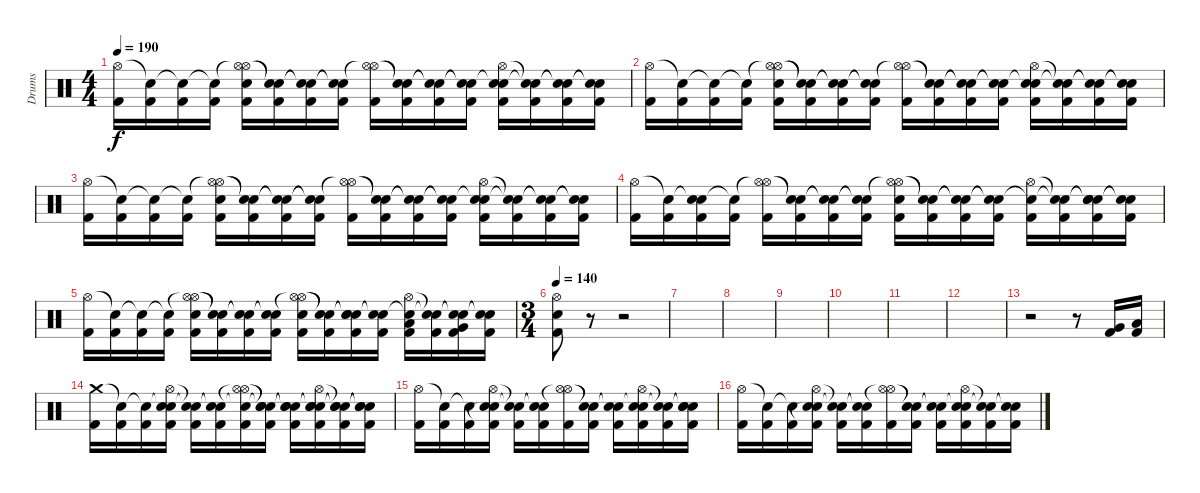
\track ("Drums" "Drums") {instrument percussion}
\staff {score}
\articulation defaults
\ts (4 4)
\tempo 190
\clef neutral
\ks c
("Hi-Hat (open)" "Kick (hit) 2").16{dy f} ("Snare (hit)"{t} "Kick (hit) 2").16 ("Snare (hit)"{t} "Kick (hit) 2").16 ("Snare (hit)"{t} "Kick (hit) 2").16 ("Hi-Hat (open)"{t} "Hi-Hat (open)" "Electric Snare (hit)" "Kick (hit) 2").16 ("Snare (hit)"{t} "Snare (hit)"{t} "Kick (hit) 2").16 ("Snare (hit)"{t} "Snare (hit)"{t} "Kick (hit) 2").16 ("Snare (hit)"{t} "Snare (hit)"{t} "Kick (hit) 2").16 ("Hi-Hat (open)" "Hi-Hat (open)"{t} "Kick (hit) 2").16 ("Snare (hit)"{t} "Snare (hit)"{t} "Kick (hit) 2").16 ("Snare (hit)"{t} "Snare (hit)"{t} "Kick (hit) 2").16 ("Snare (hit)"{t} "Snare (hit)"{t} "Kick (hit) 2").16 ("Snare (hit)"{t} "Hi-Hat (open)" "Electric Snare (hit)" "Kick (hit) 2").16 ("Snare (hit)"{t} "Snare (hit)"{t} "Kick (hit) 2").16 ("Snare (hit)"{t} "Snare (hit)"{t} "Kick (hit) 2").16 ("Snare (hit)"{t} "Snare (hit)"{t} "Kick (hit) 2").16 |
("Hi-Hat (open)" "Kick (hit) 2").16 ("Snare (hit)"{t} "Kick (hit) 2").16 ("Snare (hit)"{t} "Kick (hit) 2").16 ("Snare (hit)"{t} "Kick (hit) 2").16 ("Hi-Hat (open)"{t} "Hi-Hat (open)" "Electric Snare (hit)" "Kick (hit) 2").16 ("Snare (hit)"{t} "Snare (hit)"{t} "Kick (hit) 2").16 ("Snare (hit)"{t} "Snare (hit)"{t} "Kick (hit) 2").16 ("Snare (hit)"{t} "Snare (hit)"{t} "Kick (hit) 2").16 ("Hi-Hat (open)" "Hi-Hat (open)"{t} "Kick (hit) 2").16 ("Snare (hit)"{t} "Snare (hit)"{t} "Kick (hit) 2").16 ("Snare (hit)"{t} "Snare (hit)"{t} "Kick (hit) 2").16 ("Snare (hit)"{t} "Snare (hit)"{t} "Kick (hit) 2").16 ("Snare (hit)"{t} "Hi-Hat (open)" "Electric Snare (hit)" "Kick (hit) 2").16 ("Snare (hit)"{t} "Snare (hit)"{t} "Kick (hit) 2").16 ("Snare (hit)"{t} "Snare (hit)"{t} "Kick (hit) 2").16 ("Snare (hit)"{t} "Snare (hit)"{t} "Kick (hit) 2").16 |
("Hi-Hat (open)" "Kick (hit) 2").16 ("Snare (hit)"{t} "Kick (hit) 2").16 ("Snare (hit)"{t} "Kick (hit) 2").16 ("Snare (hit)"{t} "Kick (hit) 2").16 ("Hi-Hat (open)"{t} "Hi-Hat (open)" "Electric Snare (hit)" "Kick (hit) 2").16 ("Snare (hit)"{t} "Snare (hit)"{t} "Kick (hit) 2").16 ("Snare (hit)"{t} "Snare (hit)"{t} "Kick (hit) 2").16 ("Snare (hit)"{t} "Snare (hit)"{t} "Kick (hit) 2").16 ("Hi-Hat (open)" "Hi-Hat (open)"{t} "Kick (hit) 2").16 ("Snare (hit)"{t} "Snare (hit)"{t} "Kick (hit) 2").16 ("Snare (hit)"{t} "Snare (hit)"{t} "Kick (hit) 2").16 ("Snare (hit)"{t} "Snare (hit)"{t} "Kick (hit) 2").16 ("Snare (hit)"{t} "Hi-Hat (open)" "Electric Snare (hit)" "Kick (hit) 2").16 ("Snare (hit)"{t} "Snare (hit)"{t} "Kick (hit) 2").16 ("Snare (hit)"{t} "Snare (hit)"{t} "Kick (hit) 2").16 ("Snare (hit)"{t} "Snare (hit)"{t} "Kick (hit) 2").16 |
("Hi-Hat (open)" "Kick (hit) 2").16 ("Snare (hit)"{t} "Kick (hit) 2").16 ("Snare (hit)"{t} "Electric Snare (hit)" "Kick (hit) 2").16 ("Snare (hit)"{t} "Kick (hit) 2").16 ("Hi-Hat (open)"{t} "Hi-Hat (open)" "Kick (hit) 2").16 ("Snare (hit)"{t} "Snare (hit)"{t} "Kick (hit) 2").16 ("Snare (hit)"{t} "Snare (hit)"{t} "Kick (hit) 2").16 ("Snare (hit)"{t} "Snare (hit)"{t} "Kick (hit) 2").16 ("Hi-Hat (open)" "Hi-Hat (open)"{t} "Electric Snare (hit)" "Kick (hit) 2").16 ("Snare (hit)"{t} "Snare (hit)"{t} "Kick (hit) 2").16 ("Snare (hit)"{t} "Snare (hit)"{t} "Kick (hit) 2").16 ("Snare (hit)"{t} "Snare (hit)"{t} "Kick (hit) 2").16 ("Snare (hit)"{t} "Hi-Hat (open)" "Kick (hit) 2").16 ("Snare (hit)"{t} "Snare (hit)"{t} "Kick (hit) 2").16 ("Snare (hit)"{t} "Snare (hit)"{t} "Electric Snare (hit)" "Kick (hit) 2").16 ("Snare (hit)"{t} "Snare (hit)"{t} "Kick (hit) 2").16 |
("Hi-Hat (open)" "Kick (hit) 2").16 ("Snare (hit)"{t} "Kick (hit) 2").16 ("Snare (hit)"{t} "Kick (hit) 2").16 ("Snare (hit)"{t} "Kick (hit) 2").16 ("Hi-Hat (open)"{t} "Hi-Hat (open)" "Electric Snare (hit)" "Kick (hit) 2").16 ("Snare (hit)"{t} "Snare (hit)"{t} "Kick (hit) 2").16 ("Snare (hit)"{t} "Snare (hit)"{t} "Kick (hit) 2").16 ("Snare (hit)"{t} "Snare (hit)"{t} "Kick (hit) 2").16 ("Hi-Hat (open)" "Hi-Hat (open)"{t} "Electric Snare (hit)" "Kick (hit) 2").16 ("Snare (hit)"{t} "Snare (hit)"{t} "Kick (hit) 2").16 ("Snare (hit)"{t} "Snare (hit)"{t} "Electric Snare (hit)" "Kick (hit) 2").16 ("Snare (hit)"{t} "Snare (hit)"{t} "Kick (hit) 2").16 ("Snare (hit)"{t} "Hi-Hat (open)" "Low Tom (hit)" "Kick (hit) 2").16 ("Snare (hit)"{t} "Snare (hit)"{t} "Kick (hit) 2").16 ("Snare (hit)"{t} "Snare (hit)"{t} "Very Low Tom (hit)" "Kick (hit) 2").16 ("Snare (hit)"{t} "Snare (hit)"{t} "Kick (hit) 2").16 |
\ts (3 4)
\tempo 140
("Hi-Hat (open)" "Electric Snare (hit)" "Kick (hit) 2").8 r.8 r.2 |
|
|
|
|
|
|
r.2 r.8 ("Very Low Tom (hit)" "Kick (hit) 2").16 ("Low Floor Tom (hit)" "Kick (hit) 2").16 |
("Crash medium (hit)" "Kick (hit) 2").16 ("Snare (hit)"{t} "Kick (hit) 2").16 ("Snare (hit)"{t} "Kick (hit) 2").16 ("Snare (hit)"{t} "Hi-Hat (open)" "Electric Snare (hit)" "Kick (hit) 2").16 ("Snare (hit)"{t} "Snare (hit)"{t} "Kick (hit) 2").16 ("Snare (hit)"{t} "Snare (hit)"{t} "Kick (hit) 2").16 ("Snare (hit)"{t} "Hi-Hat (open)"{t} "Hi-Hat (open)" "Kick (hit) 2").16 ("Snare (hit)"{t} "Snare (hit)"{t} "Snare (hit)"{t} "Kick (hit) 2").16 ("Snare (hit)"{t} "Snare (hit)"{t} "Snare (hit)"{t} "Kick (hit) 2").16 ("Snare (hit)"{t} "Hi-Hat (open)" "Snare (hit)"{t} "Electric Snare (hit)" "Kick (hit) 2").16 ("Snare (hit)"{t} "Snare (hit)"{t} "Snare (hit)"{t} "Kick (hit) 2").16 ("Snare (hit)"{t} "Snare (hit)"{t} "Snare (hit)"{t} "Kick (hit) 2").16 |
("Hi-Hat (open)" "Kick (hit) 2").16 ("Snare (hit)"{t} "Kick (hit) 2").16 ("Snare (hit)"{t} "Kick (hit) 2").16 ("Hi-Hat (open)" "Snare (hit)"{t} "Electric Snare (hit)" "Kick (hit) 2").16 ("Snare (hit)"{t} "Snare (hit)"{t} "Kick (hit) 2").16 ("Snare (hit)"{t} "Snare (hit)"{t} "Kick (hit) 2").16 ("Hi-Hat (open)"{t} "Hi-Hat (open)" "Kick (hit) 2").16 ("Snare (hit)"{t} "Snare (hit)"{t} "Kick (hit) 2").16 ("Snare (hit)"{t} "Snare (hit)"{t} "Kick (hit) 2").16 ("Hi-Hat (open)" "Snare (hit)"{t} "Electric Snare (hit)" "Kick (hit) 2").16 ("Snare (hit)"{t} "Snare (hit)"{t} "Kick (hit) 2").16 ("Snare (hit)"{t} "Snare (hit)"{t} "Electric Snare (hit)" "Kick (hit) 2").16 |
("Hi-Hat (open)" "Kick (hit) 2").16 ("Snare (hit)"{t} "Kick (hit) 2").16 ("Snare (hit)"{t} "Kick (hit) 2").16 ("Hi-Hat (open)" "Snare (hit)"{t} "Electric Snare (hit)" "Kick (hit) 2").16 ("Snare (hit)"{t} "Snare (hit)"{t} "Kick (hit) 2").16 ("Snare (hit)"{t} "Snare (hit)"{t} "Kick (hit) 2").16 ("Hi-Hat (open)"{t} "Hi-Hat (open)" "Kick (hit) 2").16 ("Snare (hit)"{t} "Snare (hit)"{t} "Kick (hit) 2").16 ("Snare (hit)"{t} "Snare (hit)"{t} "Kick (hit) 2").16 ("Hi-Hat (open)" "Snare (hit)"{t} "Electric Snare (hit)" "Kick (hit) 2").16 ("Snare (hit)"{t} "Snare (hit)"{t} "Kick (hit) 2").16 ("Snare (hit)"{t} "Snare (hit)"{t} "Kick (hit) 2").16
